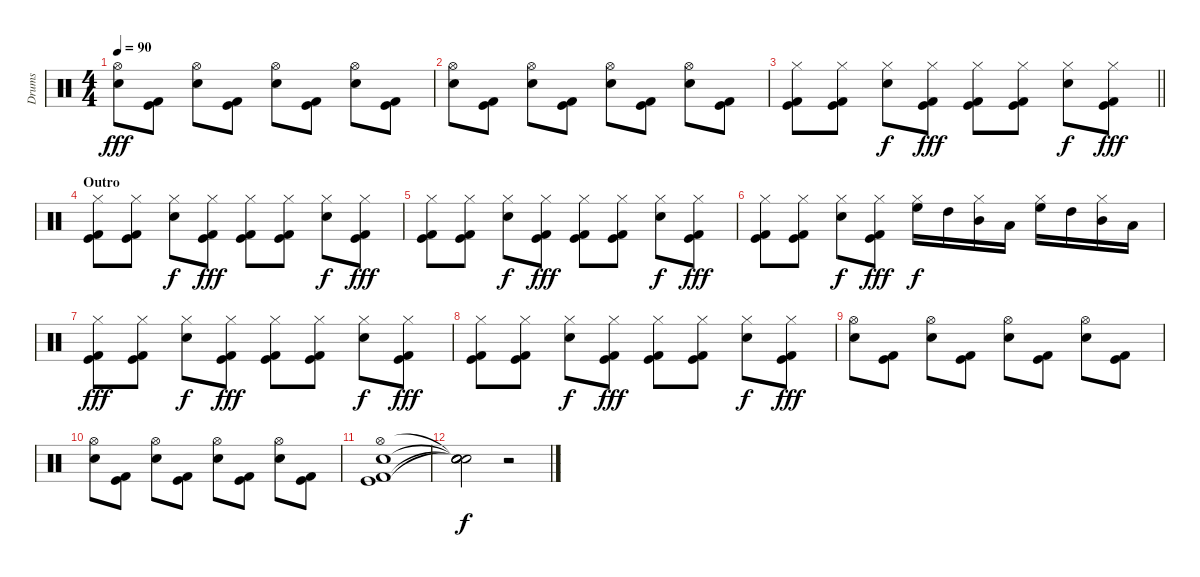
\track ("Drums" "Drums") {instrument percussion}
\staff {score}
\articulation defaults
\ts (4 4)
\tempo 90
\clef neutral
\ks c
("Hi-Hat (open)" "Snare (hit) 2").8{dy fff} ("Kick (hit) 2" "Kick (hit)").8 ("Hi-Hat (open)" "Snare (hit) 2").8 ("Kick (hit) 2" "Kick (hit)").8 ("Hi-Hat (open)" "Snare (hit) 2").8 ("Kick (hit) 2" "Kick (hit)").8 ("Hi-Hat (open)" "Snare (hit) 2").8 ("Kick (hit) 2" "Kick (hit)").8 |
("Hi-Hat (open)" "Snare (hit) 2").8 ("Kick (hit) 2" "Kick (hit)").8 ("Hi-Hat (open)" "Snare (hit) 2").8 ("Kick (hit) 2" "Kick (hit)").8 ("Hi-Hat (open)" "Snare (hit) 2").8 ("Kick (hit) 2" "Kick (hit)").8 ("Hi-Hat (open)" "Snare (hit) 2").8 ("Kick (hit) 2" "Kick (hit)").8 |
\barLineRight lightlight
("Hi-Hat (closed)" "Kick (hit) 2" "Kick (hit)").8 ("Hi-Hat (closed)" "Kick (hit) 2" "Kick (hit)").8 ("Hi-Hat (closed)" "Snare (hit) 2").8{dy f} ("Hi-Hat (closed)" "Kick (hit) 2" "Kick (hit)").8{dy fff} ("Hi-Hat (closed)" "Kick (hit) 2" "Kick (hit)").8 ("Hi-Hat (closed)" "Kick (hit) 2" "Kick (hit)").8 ("Hi-Hat (closed)" "Snare (hit) 2").8{dy f} ("Hi-Hat (closed)" "Kick (hit) 2" "Kick (hit)").8{dy fff} |
\section ("" "Outro")
("Hi-Hat (closed)" "Kick (hit) 2" "Kick (hit)").8 ("Hi-Hat (closed)" "Kick (hit) 2" "Kick (hit)").8 ("Hi-Hat (closed)" "Snare (hit) 2").8{dy f} ("Hi-Hat (closed)" "Kick (hit) 2" "Kick (hit)").8{dy fff} ("Hi-Hat (closed)" "Kick (hit) 2" "Kick (hit)").8 ("Hi-Hat (closed)" "Kick (hit) 2" "Kick (hit)").8 ("Hi-Hat (closed)" "Snare (hit) 2").8{dy f} ("Hi-Hat (closed)" "Kick (hit) 2" "Kick (hit)").8{dy fff} |
("Hi-Hat (closed)" "Kick (hit) 2" "Kick (hit)").8 ("Hi-Hat (closed)" "Kick (hit) 2" "Kick (hit)").8 ("Hi-Hat (closed)" "Snare (hit) 2").8{dy f} ("Hi-Hat (closed)" "Kick (hit) 2" "Kick (hit)").8{dy fff} ("Hi-Hat (closed)" "Kick (hit) 2" "Kick (hit)").8 ("Hi-Hat (closed)" "Kick (hit) 2" "Kick (hit)").8 ("Hi-Hat (closed)" "Snare (hit) 2").8{dy f} ("Hi-Hat (closed)" "Kick (hit) 2" "Kick (hit)").8{dy fff} |
("Hi-Hat (closed)" "Kick (hit) 2" "Kick (hit)").8 ("Hi-Hat (closed)" "Kick (hit) 2" "Kick (hit)").8 ("Hi-Hat (closed)" "Snare (hit) 2").8{dy f} ("Hi-Hat (closed)" "Kick (hit) 2" "Kick (hit)").8{dy fff} ("Hi-Hat (closed)" "High Floor Tom (hit)").16{dy f} "High Tom (hit)".16 ("Hi-Hat (closed)" "Mid Tom (hit)").16 "Low Tom (hit)".16 ("Hi-Hat (closed)" "High Floor Tom (hit)").16 "High Tom (hit)".16 ("Hi-Hat (closed)" "Mid Tom (hit)").16 "Low Tom (hit)".16 |
("Hi-Hat (closed)" "Kick (hit) 2" "Kick (hit)").8{dy fff} ("Hi-Hat (closed)" "Kick (hit) 2" "Kick (hit)").8 ("Hi-Hat (closed)" "Snare (hit) 2").8{dy f} ("Hi-Hat (closed)" "Kick (hit) 2" "Kick (hit)").8{dy fff} ("Hi-Hat (closed)" "Kick (hit) 2" "Kick (hit)").8 ("Hi-Hat (closed)" "Kick (hit) 2" "Kick (hit)").8 ("Hi-Hat (closed)" "Snare (hit) 2").8{dy f} ("Hi-Hat (closed)" "Kick (hit) 2" "Kick (hit)").8{dy fff} |
("Hi-Hat (closed)" "Kick (hit) 2" "Kick (hit)").8 ("Hi-Hat (closed)" "Kick (hit) 2" "Kick (hit)").8 ("Hi-Hat (closed)" "Snare (hit) 2").8{dy f} ("Hi-Hat (closed)" "Kick (hit) 2" "Kick (hit)").8{dy fff} ("Hi-Hat (closed)" "Kick (hit) 2" "Kick (hit)").8 ("Hi-Hat (closed)" "Kick (hit) 2" "Kick (hit)").8 ("Hi-Hat (closed)" "Snare (hit) 2").8{dy f} ("Hi-Hat (closed)" "Kick (hit) 2" "Kick (hit)").8{dy fff} |
("Hi-Hat (open)" "Snare (hit) 2").8 ("Kick (hit) 2" "Kick (hit)").8 ("Hi-Hat (open)" "Snare (hit) 2").8 ("Kick (hit) 2" "Kick (hit)").8 ("Hi-Hat (open)" "Snare (hit) 2").8 ("Kick (hit) 2" "Kick (hit)").8 ("Hi-Hat (open)" "Snare (hit) 2").8 ("Kick (hit) 2" "Kick (hit)").8 |
("Hi-Hat (open)" "Snare (hit) 2").8 ("Kick (hit) 2" "Kick (hit)").8 ("Hi-Hat (open)" "Snare (hit) 2").8 ("Kick (hit) 2" "Kick (hit)").8 ("Hi-Hat (open)" "Snare (hit) 2").8 ("Kick (hit) 2" "Kick (hit)").8 ("Hi-Hat (open)" "Snare (hit) 2").8 ("Kick (hit) 2" "Kick (hit)").8 |
("Hi-Hat (open)" "Snare (hit) 2" "Kick (hit) 2" "Kick (hit)").1 |
("Snare (hit)"{t} "Snare (hit)"{t} "Snare (hit)"{t} "Snare (hit)"{t}).2{dy f} r.2
